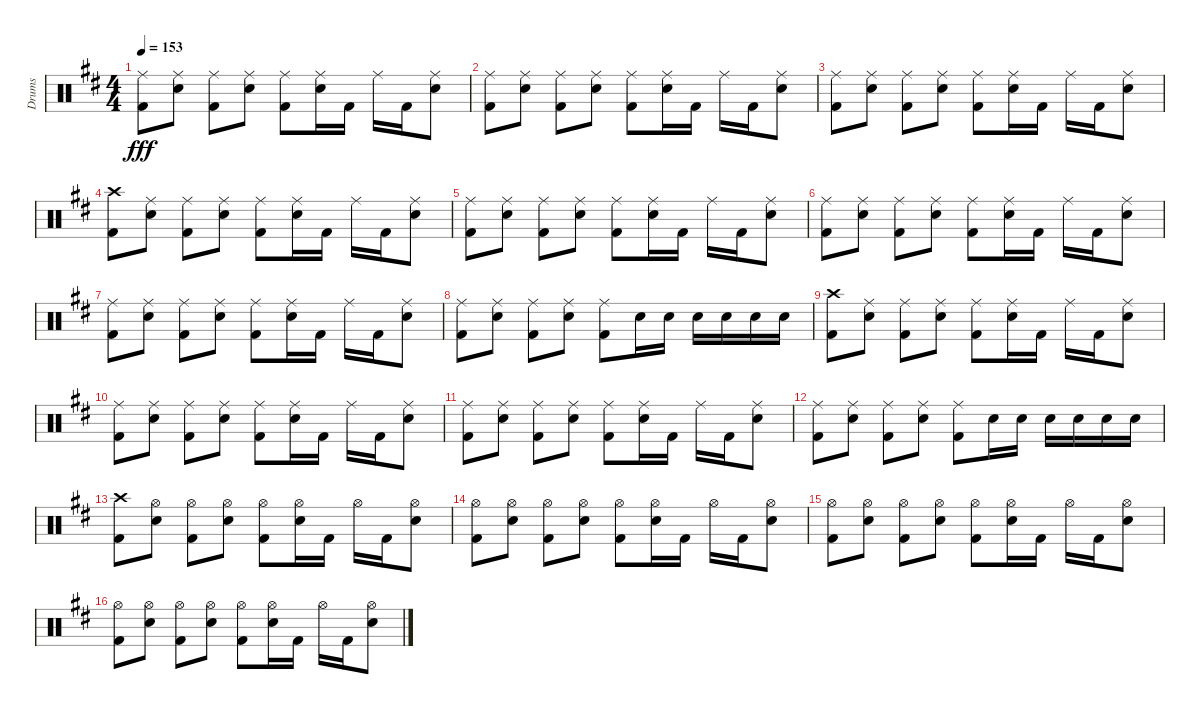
\track ("Drums" "Drums") {instrument percussion}
\staff {score}
\articulation defaults
\ts (4 4)
\tempo 153
\clef neutral
\ks d
("Ride (middle)" "Kick (hit) 2").8{dy fff} ("Ride (middle)" "Electric Snare (hit)").8 ("Ride (middle)" "Kick (hit) 2").8 ("Ride (middle)" "Electric Snare (hit)").8 ("Ride (middle)" "Kick (hit) 2").8 ("Ride (middle)" "Electric Snare (hit)").16 "Kick (hit) 2".16 "Ride (middle)".16 "Kick (hit) 2".16 ("Ride (middle)" "Electric Snare (hit)").8 |
("Ride (middle)" "Kick (hit) 2").8 ("Ride (middle)" "Electric Snare (hit)").8 ("Ride (middle)" "Kick (hit) 2").8 ("Ride (middle)" "Electric Snare (hit)").8 ("Ride (middle)" "Kick (hit) 2").8 ("Ride (middle)" "Electric Snare (hit)").16 "Kick (hit) 2".16 "Ride (middle)".16 "Kick (hit) 2".16 ("Ride (middle)" "Electric Snare (hit)").8 |
("Ride (middle)" "Kick (hit) 2").8 ("Ride (middle)" "Electric Snare (hit)").8 ("Ride (middle)" "Kick (hit) 2").8 ("Ride (middle)" "Electric Snare (hit)").8 ("Ride (middle)" "Kick (hit) 2").8 ("Ride (middle)" "Electric Snare (hit)").16 "Kick (hit) 2".16 "Ride (middle)".16 "Kick (hit) 2".16 ("Ride (middle)" "Electric Snare (hit)").8 |
("Crash high (hit)" "Kick (hit) 2").8 ("Ride (middle)" "Electric Snare (hit)").8 ("Ride (middle)" "Kick (hit) 2").8 ("Ride (middle)" "Electric Snare (hit)").8 ("Ride (middle)" "Kick (hit) 2").8 ("Ride (middle)" "Electric Snare (hit)").16 "Kick (hit) 2".16 "Ride (middle)".16 "Kick (hit) 2".16 ("Ride (middle)" "Electric Snare (hit)").8 |
("Ride (middle)" "Kick (hit) 2").8 ("Ride (middle)" "Electric Snare (hit)").8 ("Ride (middle)" "Kick (hit) 2").8 ("Ride (middle)" "Electric Snare (hit)").8 ("Ride (middle)" "Kick (hit) 2").8 ("Ride (middle)" "Electric Snare (hit)").16 "Kick (hit) 2".16 "Ride (middle)".16 "Kick (hit) 2".16 ("Ride (middle)" "Electric Snare (hit)").8 |
("Ride (middle)" "Kick (hit) 2").8 ("Ride (middle)" "Electric Snare (hit)").8 ("Ride (middle)" "Kick (hit) 2").8 ("Ride (middle)" "Electric Snare (hit)").8 ("Ride (middle)" "Kick (hit) 2").8 ("Ride (middle)" "Electric Snare (hit)").16 "Kick (hit) 2".16 "Ride (middle)".16 "Kick (hit) 2".16 ("Ride (middle)" "Electric Snare (hit)").8 |
("Ride (middle)" "Kick (hit) 2").8 ("Ride (middle)" "Electric Snare (hit)").8 ("Ride (middle)" "Kick (hit) 2").8 ("Ride (middle)" "Electric Snare (hit)").8 ("Ride (middle)" "Kick (hit) 2").8 ("Ride (middle)" "Electric Snare (hit)").16 "Kick (hit) 2".16 "Ride (middle)".16 "Kick (hit) 2".16 ("Ride (middle)" "Electric Snare (hit)").8 |
("Ride (middle)" "Kick (hit) 2").8 ("Ride (middle)" "Electric Snare (hit)").8 ("Ride (middle)" "Kick (hit) 2").8 ("Ride (middle)" "Electric Snare (hit)").8 ("Ride (middle)" "Kick (hit) 2").8 "Electric Snare (hit)".16 "Electric Snare (hit)".16 "Electric Snare (hit)".16 "Electric Snare (hit)".16 "Electric Snare (hit)".16 "Electric Snare (hit)".16 |
("Crash high (hit)" "Kick (hit) 2").8 ("Ride (middle)" "Electric Snare (hit)").8 ("Ride (middle)" "Kick (hit) 2").8 ("Ride (middle)" "Electric Snare (hit)").8 ("Ride (middle)" "Kick (hit) 2").8 ("Ride (middle)" "Electric Snare (hit)").16 "Kick (hit) 2".16 "Ride (middle)".16 "Kick (hit) 2".16 ("Ride (middle)" "Electric Snare (hit)").8 |
("Ride (middle)" "Kick (hit) 2").8 ("Ride (middle)" "Electric Snare (hit)").8 ("Ride (middle)" "Kick (hit) 2").8 ("Ride (middle)" "Electric Snare (hit)").8 ("Ride (middle)" "Kick (hit) 2").8 ("Ride (middle)" "Electric Snare (hit)").16 "Kick (hit) 2".16 "Ride (middle)".16 "Kick (hit) 2".16 ("Ride (middle)" "Electric Snare (hit)").8 |
("Ride (middle)" "Kick (hit) 2").8 ("Ride (middle)" "Electric Snare (hit)").8 ("Ride (middle)" "Kick (hit) 2").8 ("Ride (middle)" "Electric Snare (hit)").8 ("Ride (middle)" "Kick (hit) 2").8 ("Ride (middle)" "Electric Snare (hit)").16 "Kick (hit) 2".16 "Ride (middle)".16 "Kick (hit) 2".16 ("Ride (middle)" "Electric Snare (hit)").8 |
("Ride (middle)" "Kick (hit) 2").8 ("Ride (middle)" "Electric Snare (hit)").8 ("Ride (middle)" "Kick (hit) 2").8 ("Ride (middle)" "Electric Snare (hit)").8 ("Ride (middle)" "Kick (hit) 2").8 "Electric Snare (hit)".16 "Electric Snare (hit)".16 "Electric Snare (hit)".16 "Electric Snare (hit)".16 "Electric Snare (hit)".16 "Electric Snare (hit)".16 |
("Crash high (hit)" "Kick (hit) 2").8 ("Hi-Hat (open)" "Electric Snare (hit)").8 ("Hi-Hat (open)" "Kick (hit) 2").8 ("Hi-Hat (open)" "Electric Snare (hit)").8 ("Hi-Hat (open)" "Kick (hit) 2").8 ("Hi-Hat (open)" "Electric Snare (hit)").16 "Kick (hit) 2".16 "Hi-Hat (open)".16 "Kick (hit) 2".16 ("Hi-Hat (open)" "Electric Snare (hit)").8 |
("Hi-Hat (open)" "Kick (hit) 2").8 ("Hi-Hat (open)" "Electric Snare (hit)").8 ("Hi-Hat (open)" "Kick (hit) 2").8 ("Hi-Hat (open)" "Electric Snare (hit)").8 ("Hi-Hat (open)" "Kick (hit) 2").8 ("Hi-Hat (open)" "Electric Snare (hit)").16 "Kick (hit) 2".16 "Hi-Hat (open)".16 "Kick (hit) 2".16 ("Hi-Hat (open)" "Electric Snare (hit)").8 |
("Hi-Hat (open)" "Kick (hit) 2").8 ("Hi-Hat (open)" "Electric Snare (hit)").8 ("Hi-Hat (open)" "Kick (hit) 2").8 ("Hi-Hat (open)" "Electric Snare (hit)").8 ("Hi-Hat (open)" "Kick (hit) 2").8 ("Hi-Hat (open)" "Electric Snare (hit)").16 "Kick (hit) 2".16 "Hi-Hat (open)".16 "Kick (hit) 2".16 ("Hi-Hat (open)" "Electric Snare (hit)").8 |
("Hi-Hat (open)" "Kick (hit) 2").8 ("Hi-Hat (open)" "Electric Snare (hit)").8 ("Hi-Hat (open)" "Kick (hit) 2").8 ("Hi-Hat (open)" "Electric Snare (hit)").8 ("Hi-Hat (open)" "Kick (hit) 2").8 ("Hi-Hat (open)" "Electric Snare (hit)").16 "Kick (hit) 2".16 "Hi-Hat (open)".16 "Kick (hit) 2".16 ("Hi-Hat (open)" "Electric Snare (hit)").8
